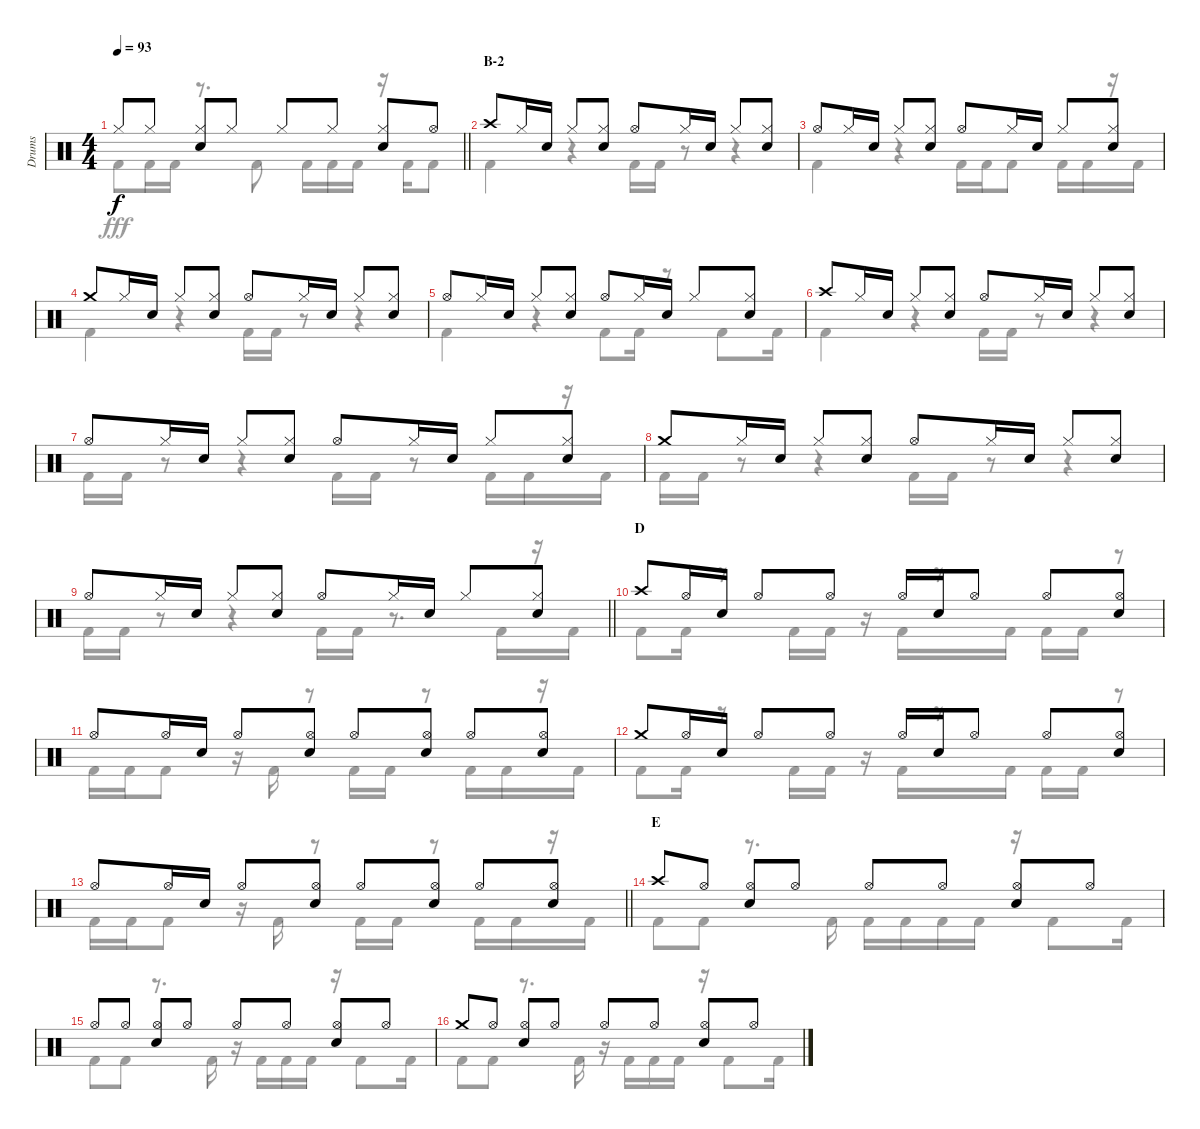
\track ("Drums" "Drums") {instrument percussion}
\staff {score}
\articulation defaults
\voice
\ts (4 4)
\tempo 93
\clef neutral
\barLineRight lightlight
\ks c "Hi-Hat (closed)".8{dy f} "Hi-Hat (closed)".8
("Hi-Hat (closed)" "Snare (hit) 2").8 "Hi-Hat (closed)".8 "Hi-Hat (closed)".8 "Hi-Hat (closed)".8 ("Hi-Hat (closed)" "Snare (hit) 2").8 "Hi-Hat (open)".8 |
\section ("" "B-2")
"Crash high (hit)".8 "Hi-Hat (closed)".16 "Snare (hit) 2".16 "Hi-Hat (closed)".8 ("Hi-Hat (closed)" "Snare (hit) 2").8 "Hi-Hat (open)".8 "Hi-Hat (closed)".16 "Snare (hit) 2".16 "Hi-Hat (closed)".8 ("Hi-Hat (closed)" "Snare (hit) 2").8 |
"Hi-Hat (open)".8 "Hi-Hat (closed)".16 "Snare (hit) 2".16 "Hi-Hat (closed)".8 ("Hi-Hat (closed)" "Snare (hit) 2").8 "Hi-Hat (open)".8 "Hi-Hat (closed)".16 "Snare (hit) 2".16 "Hi-Hat (closed)".8 ("Hi-Hat (closed)" "Snare (hit) 2").8 |
"Crash medium (hit)".8 "Hi-Hat (closed)".16 "Snare (hit) 2".16 "Hi-Hat (closed)".8 ("Hi-Hat (closed)" "Snare (hit) 2").8 "Hi-Hat (open)".8 "Hi-Hat (closed)".16 "Snare (hit) 2".16 "Hi-Hat (closed)".8 ("Hi-Hat (closed)" "Snare (hit) 2").8 |
"Hi-Hat (open)".8 "Hi-Hat (closed)".16 "Snare (hit) 2".16 "Hi-Hat (closed)".8 ("Hi-Hat (closed)" "Snare (hit) 2").8 "Hi-Hat (open)".8 "Hi-Hat (closed)".16 "Snare (hit) 2".16 "Hi-Hat (closed)".8 ("Hi-Hat (closed)" "Snare (hit) 2").8 |
"Crash high (hit)".8 "Hi-Hat (closed)".16 "Snare (hit) 2".16 "Hi-Hat (closed)".8 ("Hi-Hat (closed)" "Snare (hit) 2").8 "Hi-Hat (open)".8 "Hi-Hat (closed)".16 "Snare (hit) 2".16 "Hi-Hat (closed)".8 ("Hi-Hat (closed)" "Snare (hit) 2").8 |
"Hi-Hat (open)".8 "Hi-Hat (closed)".16 "Snare (hit) 2".16 "Hi-Hat (closed)".8 ("Hi-Hat (closed)" "Snare (hit) 2").8 "Hi-Hat (open)".8 "Hi-Hat (closed)".16 "Snare (hit) 2".16 "Hi-Hat (closed)".8 ("Hi-Hat (closed)" "Snare (hit) 2").8 |
"Crash medium (hit)".8 "Hi-Hat (closed)".16 "Snare (hit) 2".16 "Hi-Hat (closed)".8 ("Hi-Hat (closed)" "Snare (hit) 2").8 "Hi-Hat (open)".8 "Hi-Hat (closed)".16 "Snare (hit) 2".16 "Hi-Hat (closed)".8 ("Hi-Hat (closed)" "Snare (hit) 2").8 |
\barLineRight lightlight "Hi-Hat (open)".8 "Hi-Hat (closed)".16 "Snare (hit) 2".16 "Hi-Hat (closed)".8
("Hi-Hat (closed)" "Snare (hit) 2").8 "Hi-Hat (open)".8 "Hi-Hat (closed)".16 "Snare (hit) 2".16 "Hi-Hat (closed)".8 ("Hi-Hat (closed)" "Snare (hit) 2").8 |
\section ("" "D")
"Crash high (hit)".8 "Hi-Hat (open)".16 "Snare (hit) 2".16 "Hi-Hat (open)".8 "Hi-Hat (open)".8 "Hi-Hat (open)".16 "Snare (hit) 2".16 "Hi-Hat (open)".8 "Hi-Hat (open)".8 ("Hi-Hat (open)" "Snare (hit) 2").8 |
"Hi-Hat (open)".8 "Hi-Hat (open)".16 "Snare (hit) 2".16 "Hi-Hat (open)".8 ("Hi-Hat (open)" "Snare (hit) 2").8 "Hi-Hat (open)".8 ("Hi-Hat (open)" "Snare (hit) 2").8 "Hi-Hat (open)".8 ("Hi-Hat (open)" "Snare (hit) 2").8 |
"Crash medium (hit)".8 "Hi-Hat (open)".16 "Snare (hit) 2".16 "Hi-Hat (open)".8 "Hi-Hat (open)".8 "Hi-Hat (open)".16 "Snare (hit) 2".16 "Hi-Hat (open)".8 "Hi-Hat (open)".8 ("Hi-Hat (open)" "Snare (hit) 2").8 |
\barLineRight lightlight "Hi-Hat (open)".8 "Hi-Hat (open)".16 "Snare (hit) 2".16 "Hi-Hat (open)".8
("Hi-Hat (open)" "Snare (hit) 2").8 "Hi-Hat (open)".8 ("Hi-Hat (open)" "Snare (hit) 2").8 "Hi-Hat (open)".8 ("Hi-Hat (open)" "Snare (hit) 2").8 |
\section ("" "E")
"Crash high (hit)".8 "Hi-Hat (open)".8 ("Hi-Hat (open)" "Snare (hit) 2").8 "Hi-Hat (open)".8 "Hi-Hat (open)".8 "Hi-Hat (open)".8 ("Hi-Hat (open)" "Snare (hit) 2").8 "Hi-Hat (open)".8 |
"Hi-Hat (open)".8 "Hi-Hat (open)".8 ("Hi-Hat (open)" "Snare (hit) 2").8 "Hi-Hat (open)".8 "Hi-Hat (open)".8 "Hi-Hat (open)".8 ("Hi-Hat (open)" "Snare (hit) 2").8 "Hi-Hat (open)".8 |
"Crash medium (hit)".8 "Hi-Hat (open)".8 ("Hi-Hat (open)" "Snare (hit) 2").8 "Hi-Hat (open)".8 "Hi-Hat (open)".8 "Hi-Hat (open)".8 ("Hi-Hat (open)" "Snare (hit) 2").8 "Hi-Hat (open)".8
\voice
\clef neutral
\ottava regular
\simile none
\barLineRight lightlight
\ks c "Kick (hit) 2".8{dy fff} "Kick (hit) 2".16 "Kick (hit) 2".16
r.8{d} "Kick (hit) 2".8 "Kick (hit) 2".16 "Kick (hit) 2".16 "Kick (hit) 2".16 r.16 "Kick (hit) 2".16 "Kick (hit) 2".8 |
"Kick (hit) 2".4 r.4 "Kick (hit) 2".16 "Kick (hit) 2".16 r.8 r.4 |
"Kick (hit) 2".4 r.4 "Kick (hit) 2".16 "Kick (hit) 2".16 "Kick (hit) 2".8 "Kick (hit) 2".16 "Kick (hit) 2".16 r.16 "Kick (hit) 2".16 |
"Kick (hit) 2".4 r.4 "Kick (hit) 2".16 "Kick (hit) 2".16 r.8 r.4 |
"Kick (hit) 2".4 r.4 "Kick (hit) 2".8 "Kick (hit) 2".16 r.8 "Kick (hit) 2".8 "Kick (hit) 2".16 |
"Kick (hit) 2".4 r.4 "Kick (hit) 2".16 "Kick (hit) 2".16 r.8 r.4 |
"Kick (hit) 2".16 "Kick (hit) 2".16 r.8 r.4 "Kick (hit) 2".16 "Kick (hit) 2".16 r.8 "Kick (hit) 2".16 "Kick (hit) 2".16 r.16 "Kick (hit) 2".16 |
"Kick (hit) 2".16 "Kick (hit) 2".16 r.8 r.4 "Kick (hit) 2".16 "Kick (hit) 2".16 r.8 r.4 |
\barLineRight lightlight "Kick (hit) 2".16 "Kick (hit) 2".16
r.8 r.4 "Kick (hit) 2".16 "Kick (hit) 2".16 r.8{d} "Kick (hit) 2".16 r.16 "Kick (hit) 2".16 |
"Kick (hit) 2".8 "Kick (hit) 2".16 r.8 "Kick (hit) 2".16 "Kick (hit) 2".16 r.16 "Kick (hit) 2".16 r.8 "Kick (hit) 2".16 "Kick (hit) 2".16 "Kick (hit) 2".16 r.8 |
"Kick (hit) 2".16 "Kick (hit) 2".16 "Kick (hit) 2".8 r.16 "Kick (hit) 2".16 r.8 "Kick (hit) 2".16 "Kick (hit) 2".16 r.8 "Kick (hit) 2".16 "Kick (hit) 2".16 r.16 "Kick (hit) 2".16 |
"Kick (hit) 2".8 "Kick (hit) 2".16 r.8 "Kick (hit) 2".16 "Kick (hit) 2".16 r.16 "Kick (hit) 2".16 r.8 "Kick (hit) 2".16 "Kick (hit) 2".16 "Kick (hit) 2".16 r.8 |
\barLineRight lightlight "Kick (hit) 2".16 "Kick (hit) 2".16 "Kick (hit) 2".8
r.16 "Kick (hit) 2".16 r.8 "Kick (hit) 2".16 "Kick (hit) 2".16 r.8 "Kick (hit) 2".16 "Kick (hit) 2".16 r.16 "Kick (hit) 2".16 |
"Kick (hit) 2".8 "Kick (hit) 2".8 r.8{d} "Kick (hit) 2".16 "Kick (hit) 2".16 "Kick (hit) 2".16 "Kick (hit) 2".16 "Kick (hit) 2".16 r.16 "Kick (hit) 2".8 "Kick (hit) 2".16 |
"Kick (hit) 2".8 "Kick (hit) 2".8 r.8{d} "Kick (hit) 2".16 r.16 "Kick (hit) 2".16 "Kick (hit) 2".16 "Kick (hit) 2".16 r.16 "Kick (hit) 2".8 "Kick (hit) 2".16 |
"Kick (hit) 2".8 "Kick (hit) 2".8 r.8{d} "Kick (hit) 2".16 r.16 "Kick (hit) 2".16 "Kick (hit) 2".16 "Kick (hit) 2".16 r.16 "Kick (hit) 2".8 "Kick (hit) 2".16
